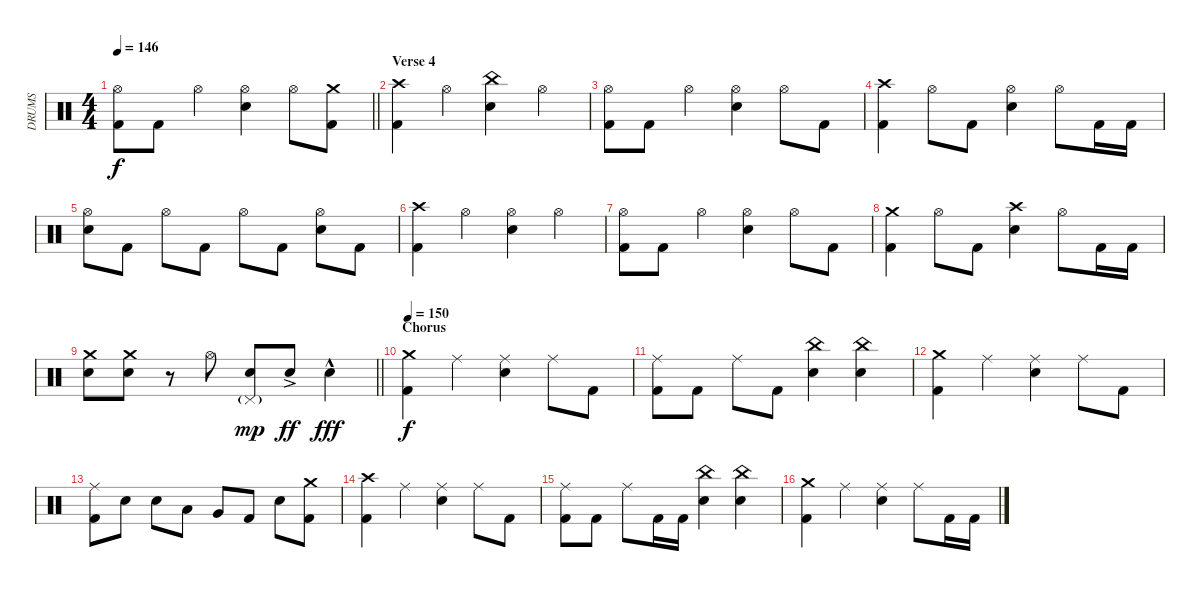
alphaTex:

\track ("DRUMS" "DRUMS") {instrument percussion}
\staff {score}
\articulation defaults
\ts (4 4)
\tempo 146
\clef neutral
\barLineRight lightlight
\ks c
("Hi-Hat (open)" "Kick (hit) 2").8{dy f} "Kick (hit) 2".8 "Hi-Hat (open)".4 ("Hi-Hat (open)" "Snare (hit) 2").4 "Hi-Hat (open)".8 ("Crash medium (hit)" "Kick (hit) 2").8 |
\section ("" "Verse 4")
("Crash high (hit)" "Kick (hit) 2").4 "Hi-Hat (open)".4 ("China (hit)" "Snare (hit) 2").4 "Hi-Hat (open)".4 |
("Hi-Hat (open)" "Kick (hit) 2").8 "Kick (hit) 2".8 "Hi-Hat (open)".4 ("Hi-Hat (open)" "Snare (hit) 2").4 "Hi-Hat (open)".8 "Kick (hit) 2".8 |
("Crash high (hit)" "Kick (hit) 2").4 "Hi-Hat (open)".8 "Kick (hit) 2".8 ("Hi-Hat (open)" "Snare (hit) 2").4 "Hi-Hat (open)".8 "Kick (hit) 2".16 "Kick (hit) 2".16 |
("Hi-Hat (open)" "Snare (hit) 2").8 "Kick (hit) 2".8 "Hi-Hat (open)".8 "Kick (hit) 2".8 "Hi-Hat (open)".8 "Kick (hit) 2".8 ("Hi-Hat (open)" "Snare (hit) 2").8 "Kick (hit) 2".8 |
("Crash high (hit)" "Kick (hit) 2").4 "Hi-Hat (open)".4 ("Hi-Hat (open)" "Snare (hit) 2").4 "Hi-Hat (open)".4 |
("Hi-Hat (open)" "Kick (hit) 2").8 "Kick (hit) 2".8 "Hi-Hat (open)".4 ("Hi-Hat (open)" "Snare (hit) 2").4 "Hi-Hat (open)".8 "Kick (hit) 2".8 |
("Crash medium (hit)" "Kick (hit) 2").4 "Hi-Hat (open)".8 "Kick (hit) 2".8 ("Crash high (hit)" "Snare (hit) 2").4 "Hi-Hat (open)".8 "Kick (hit) 2".16 "Kick (hit) 2".16 |
\barLineRight lightlight
("Crash medium (hit)" "Snare (hit) 2").8 ("Crash medium (hit)" "Snare (hit) 2").8 r.8 "Hi-Hat (open)".8 ("Pedal Hi-Hat (hit)"{g} "Snare (hit) 2").8{dy mp} "Snare (hit) 2"{ac}.8{dy ff} "Snare (hit) 2"{hac}.4{dy fff} |
\section ("" "Chorus")
\tempo 150
("Crash medium (hit)" "Kick (hit) 2").4{dy f} "Ride (middle)".4 ("Ride (middle)" "Snare (hit) 2").4 "Ride (middle)".8 "Kick (hit) 2".8 |
("Ride (middle)" "Kick (hit) 2").8 "Kick (hit) 2".8 "Ride (middle)".8 "Kick (hit) 2".8 ("China (hit)" "Snare (hit) 2").4 ("China (hit)" "Snare (hit) 2").4 |
("Crash medium (hit)" "Kick (hit) 2").4 "Ride (middle)".4 ("Ride (middle)" "Snare (hit) 2").4 "Ride (middle)".8 "Kick (hit) 2".8 |
("Ride (middle)" "Kick (hit) 2").8 "Snare (hit) 2".8 "Snare (hit) 2".8 "Low Tom (hit)".8 "Very Low Tom (hit)".8 "Kick (hit) 2".8 "Snare (hit) 2".8 ("Crash medium (hit)" "Kick (hit) 2").8 |
("Crash high (hit)" "Kick (hit) 2").4 "Ride (middle)".4 ("Ride (middle)" "Snare (hit) 2").4 "Ride (middle)".8 "Kick (hit) 2".8 |
("Ride (middle)" "Kick (hit) 2").8 "Kick (hit) 2".8 "Ride (middle)".8 "Kick (hit) 2".16 "Kick (hit) 2".16 ("China (hit)" "Snare (hit) 2").4 ("China (hit)" "Snare (hit) 2").4 |
("Crash medium (hit)" "Kick (hit) 2").4 "Ride (middle)".4 ("Ride (middle)" "Snare (hit) 2").4 "Ride (middle)".8 "Kick (hit) 2".16 "Kick (hit) 2".16
